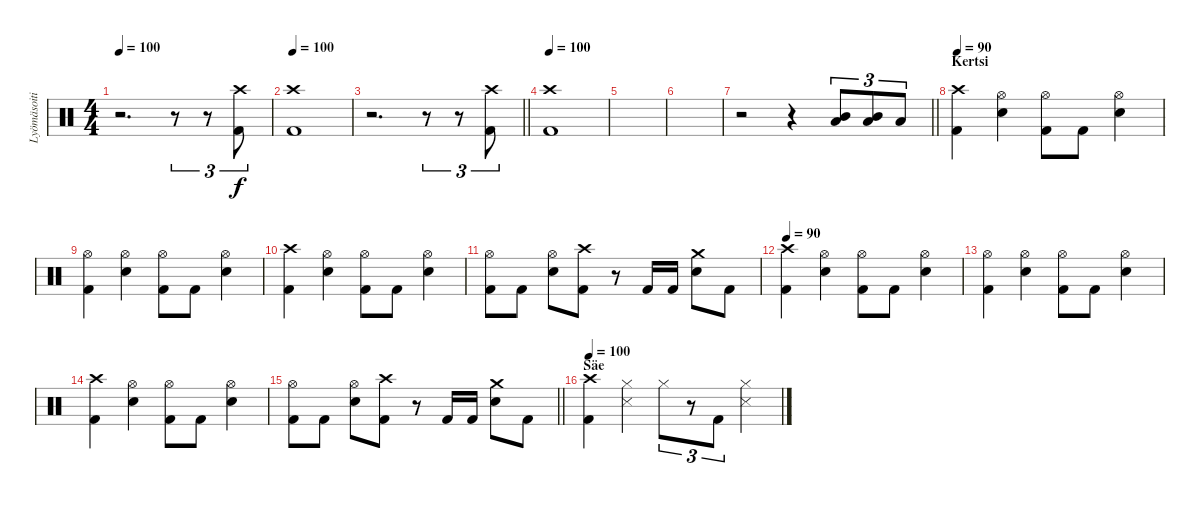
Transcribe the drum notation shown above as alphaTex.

\track ("Lyömäsoitin" "Lyömäsoiti") {instrument percussion}
\staff {score}
\articulation defaults
\ts (4 4)
\tempo 100
\clef neutral
\ks c
r.2{d dy f} r.8{tu (3 2)} r.8{tu (3 2)} ("Crash high (hit)" "Kick (hit) 2").8{tu (3 2)} |
\tempo 100
("Crash high (hit)" "Kick (hit) 2").1 |
\barLineRight lightlight
r.2{d} r.8{tu (3 2)} r.8{tu (3 2)} ("Crash high (hit)" "Kick (hit) 2").8{tu (3 2)} |
\tempo 100
("Crash high (hit)" "Kick (hit) 2").1 |
|
|
\barLineRight lightlight
r.2 r.4 ("Mid Tom (hit)" "Low Tom (hit)").8{tu (3 2)} ("Mid Tom (hit)" "Low Tom (hit)").8{tu (3 2)} "Low Floor Tom (hit)".8{tu (3 2)} |
\section ("" "Kertsi")
\tempo 90
("Crash high (hit)" "Kick (hit) 2").4 ("Hi-Hat (open)" "Snare (hit) 2").4 ("Hi-Hat (open)" "Kick (hit) 2").8 "Kick (hit) 2".8 ("Hi-Hat (open)" "Snare (hit) 2").4 |
("Hi-Hat (open)" "Kick (hit) 2").4 ("Hi-Hat (open)" "Snare (hit) 2").4 ("Hi-Hat (open)" "Kick (hit) 2").8 "Kick (hit) 2".8 ("Hi-Hat (open)" "Snare (hit) 2").4 |
("Crash high (hit)" "Kick (hit) 2").4 ("Hi-Hat (open)" "Snare (hit) 2").4 ("Hi-Hat (open)" "Kick (hit) 2").8 "Kick (hit) 2".8 ("Hi-Hat (open)" "Snare (hit) 2").4 |
("Hi-Hat (open)" "Kick (hit) 2").8 "Kick (hit) 2".8 ("Hi-Hat (open)" "Snare (hit) 2").8 ("Crash high (hit)" "Kick (hit) 2").8 r.8 "Kick (hit) 2".16 "Kick (hit) 2".16 ("Crash medium (hit)" "Snare (hit) 2").8 "Kick (hit) 2".8 |
\tempo 90
("Crash high (hit)" "Kick (hit) 2").4 ("Hi-Hat (open)" "Snare (hit) 2").4 ("Hi-Hat (open)" "Kick (hit) 2").8 "Kick (hit) 2".8 ("Hi-Hat (open)" "Snare (hit) 2").4 |
("Hi-Hat (open)" "Kick (hit) 2").4 ("Hi-Hat (open)" "Snare (hit) 2").4 ("Hi-Hat (open)" "Kick (hit) 2").8 "Kick (hit) 2".8 ("Hi-Hat (open)" "Snare (hit) 2").4 |
("Crash high (hit)" "Kick (hit) 2").4 ("Hi-Hat (open)" "Snare (hit) 2").4 ("Hi-Hat (open)" "Kick (hit) 2").8 "Kick (hit) 2".8 ("Hi-Hat (open)" "Snare (hit) 2").4 |
\barLineRight lightlight
("Hi-Hat (open)" "Kick (hit) 2").8 "Kick (hit) 2".8 ("Hi-Hat (open)" "Snare (hit) 2").8 ("Crash high (hit)" "Kick (hit) 2").8 r.8 "Kick (hit) 2".16 "Kick (hit) 2".16 ("Crash medium (hit)" "Snare (hit) 2").8 "Kick (hit) 2".8 |
\section ("" "Säe")
\tempo 100
("Crash high (hit)" "Kick (hit) 2").4 ("Hi-Hat (closed)" "Snare (side stick) 3").4 "Hi-Hat (closed)".8{tu (3 2)} r.8{tu (3 2)} "Kick (hit) 2".8{tu (3 2)} ("Hi-Hat (closed)" "Snare (side stick) 3").4
